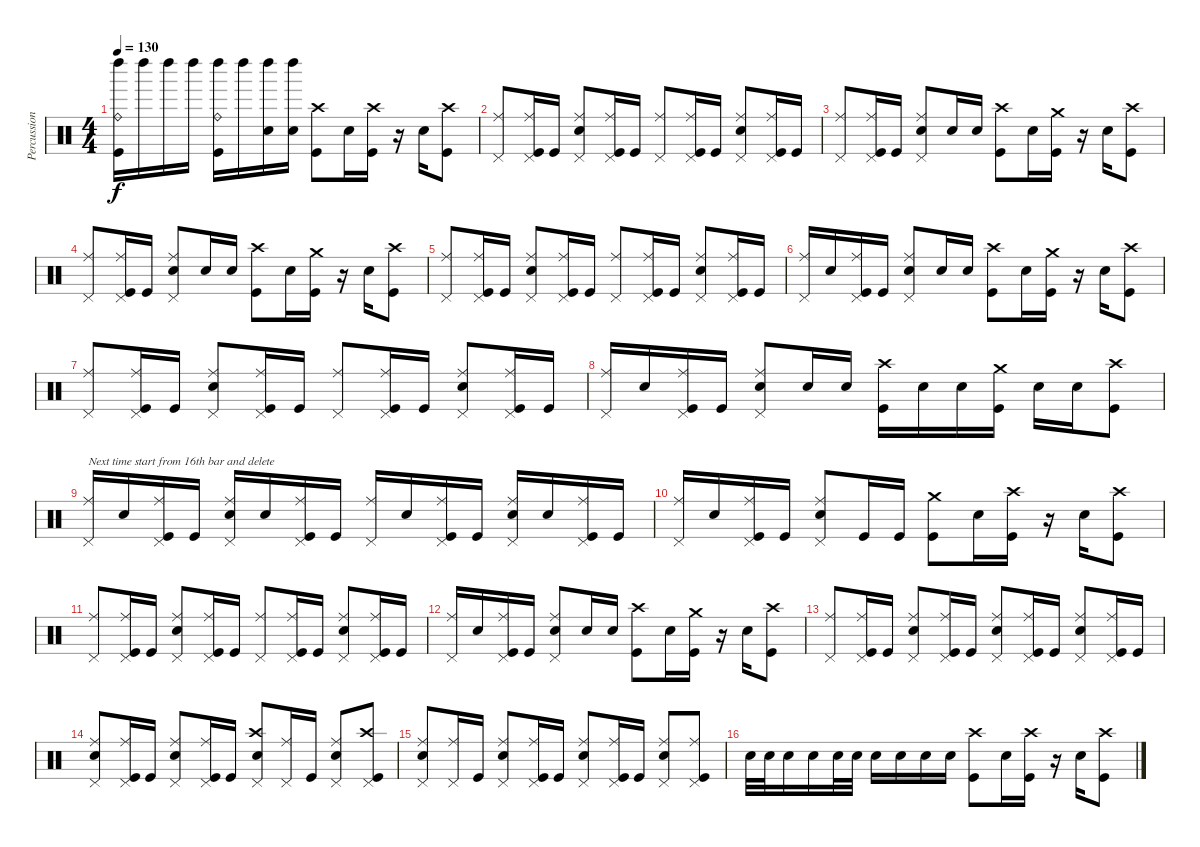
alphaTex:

\track ("Percussion" "Percussion") {instrument percussion}
\staff {score}
\articulation defaults
\ts (4 4)
\tempo 130
\clef neutral
\ks c
("Left Maraca (hit)" "Ride (bell)" "Kick (hit)").16{dy f} "Left Maraca (hit)".16 "Left Maraca (hit)".16 "Left Maraca (hit)".16 ("Left Maraca (hit)" "Ride (bell)" "Kick (hit)").16 "Left Maraca (hit)".16 ("Left Maraca (hit)" "Snare (hit) 2").16 ("Left Maraca (hit)" "Snare (hit) 2").16 ("Crash high (hit)" "Kick (hit)").8 "Electric Snare (hit)".16 ("Crash high (hit)" "Kick (hit)").16 r.16 "Electric Snare (hit)".16 ("Kick (hit)" "Crash high (hit)").8 |
("Ride (middle)" "Pedal Hi-Hat (hit)").8 ("Ride (middle)" "Pedal Hi-Hat (hit)" "Kick (hit)").16 "Kick (hit)".16 ("Ride (middle)" "Pedal Hi-Hat (hit)" "Snare (hit) 2").8 ("Ride (middle)" "Pedal Hi-Hat (hit)" "Kick (hit)").16 "Kick (hit)".16 ("Ride (middle)" "Pedal Hi-Hat (hit)").8 ("Ride (middle)" "Pedal Hi-Hat (hit)" "Kick (hit)").16 "Kick (hit)".16 ("Ride (middle)" "Pedal Hi-Hat (hit)" "Snare (hit) 2").8 ("Ride (middle)" "Pedal Hi-Hat (hit)" "Kick (hit)").16 "Kick (hit)".16 |
("Ride (middle)" "Pedal Hi-Hat (hit)").8 ("Pedal Hi-Hat (hit)" "Ride (middle)" "Kick (hit)").16 "Kick (hit)".16 ("Ride (middle)" "Pedal Hi-Hat (hit)" "Snare (hit) 2").8 "Snare (hit) 2".16 "Snare (hit) 2".16 ("Crash high (hit)" "Kick (hit)").8 "Electric Snare (hit)".16 ("Kick (hit)" "Crash medium (hit)").16 r.16 "Electric Snare (hit)".16 ("Kick (hit)" "Crash high (hit)").8 |
("Ride (middle)" "Pedal Hi-Hat (hit)").8 ("Pedal Hi-Hat (hit)" "Ride (middle)" "Kick (hit)").16 "Kick (hit)".16 ("Ride (middle)" "Pedal Hi-Hat (hit)" "Snare (hit) 2").8 "Snare (hit) 2".16 "Snare (hit) 2".16 ("Crash high (hit)" "Kick (hit)").8 "Electric Snare (hit)".16 ("Kick (hit)" "Crash medium (hit)").16 r.16 "Electric Snare (hit)".16 ("Kick (hit)" "Crash high (hit)").8 |
("Ride (middle)" "Pedal Hi-Hat (hit)").8 ("Ride (middle)" "Pedal Hi-Hat (hit)" "Kick (hit)").16 "Kick (hit)".16 ("Ride (middle)" "Pedal Hi-Hat (hit)" "Snare (hit) 2").8 ("Ride (middle)" "Pedal Hi-Hat (hit)" "Kick (hit)").16 "Kick (hit)".16 ("Ride (middle)" "Pedal Hi-Hat (hit)").8 ("Ride (middle)" "Pedal Hi-Hat (hit)" "Kick (hit)").16 "Kick (hit)".16 ("Ride (middle)" "Pedal Hi-Hat (hit)" "Snare (hit) 2").8 ("Ride (middle)" "Pedal Hi-Hat (hit)" "Kick (hit)").16 "Kick (hit)".16 |
("Ride (middle)" "Pedal Hi-Hat (hit)").16 "Snare (hit) 2".16 ("Pedal Hi-Hat (hit)" "Ride (middle)" "Kick (hit)").16 "Kick (hit)".16 ("Ride (middle)" "Pedal Hi-Hat (hit)" "Snare (hit) 2").8 "Snare (hit) 2".16 "Snare (hit) 2".16 ("Crash high (hit)" "Kick (hit)").8 "Electric Snare (hit)".16 ("Kick (hit)" "Crash medium (hit)").16 r.16 "Electric Snare (hit)".16 ("Kick (hit)" "Crash high (hit)").8 |
("Ride (middle)" "Pedal Hi-Hat (hit)").8 ("Ride (middle)" "Pedal Hi-Hat (hit)" "Kick (hit)").16 "Kick (hit)".16 ("Ride (middle)" "Pedal Hi-Hat (hit)" "Snare (hit) 2").8 ("Ride (middle)" "Pedal Hi-Hat (hit)" "Kick (hit)").16 "Kick (hit)".16 ("Ride (middle)" "Pedal Hi-Hat (hit)").8 ("Ride (middle)" "Pedal Hi-Hat (hit)" "Kick (hit)").16 "Kick (hit)".16 ("Ride (middle)" "Pedal Hi-Hat (hit)" "Snare (hit) 2").8 ("Ride (middle)" "Pedal Hi-Hat (hit)" "Kick (hit)").16 "Kick (hit)".16 |
("Ride (middle)" "Pedal Hi-Hat (hit)").16 "Snare (hit) 2".16 ("Pedal Hi-Hat (hit)" "Ride (middle)" "Kick (hit)").16 "Kick (hit)".16 ("Ride (middle)" "Pedal Hi-Hat (hit)" "Snare (hit) 2").8 "Snare (hit) 2".16 "Snare (hit) 2".16 ("Crash high (hit)" "Kick (hit)").16 "Snare (hit) 2".16 "Snare (hit) 2".16 ("Kick (hit)" "Crash medium (hit)").16 "Snare (hit) 2".16 "Snare (hit) 2".16 ("Kick (hit)" "Crash high (hit)").8 |
("Ride (middle)" "Pedal Hi-Hat (hit)").16{txt "Next time start from 16th bar and delete"} "Snare (hit) 2".16 ("Ride (middle)" "Pedal Hi-Hat (hit)" "Kick (hit)").16 "Kick (hit)".16 ("Ride (middle)" "Pedal Hi-Hat (hit)" "Snare (hit) 2").16 "Snare (hit) 2".16 ("Ride (middle)" "Pedal Hi-Hat (hit)" "Kick (hit)").16 "Kick (hit)".16 ("Ride (middle)" "Pedal Hi-Hat (hit)").16 "Snare (hit) 2".16 ("Ride (middle)" "Pedal Hi-Hat (hit)" "Kick (hit)").16 "Kick (hit)".16 ("Ride (middle)" "Pedal Hi-Hat (hit)" "Snare (hit) 2").16 "Snare (hit) 2".16 ("Ride (middle)" "Pedal Hi-Hat (hit)" "Kick (hit)").16 "Kick (hit)".16 |
("Ride (middle)" "Pedal Hi-Hat (hit)").16 "Snare (hit) 2".16 ("Ride (middle)" "Pedal Hi-Hat (hit)" "Kick (hit)").16 "Kick (hit)".16 ("Ride (middle)" "Pedal Hi-Hat (hit)" "Snare (hit) 2").8 "Kick (hit)".16 "Kick (hit)".16 ("Kick (hit)" "Crash medium (hit)").8 "Electric Snare (hit)".16 ("Kick (hit)" "Crash high (hit)").16 r.16 "Electric Snare (hit)".16 ("Kick (hit)" "Crash high (hit)").8 |
("Ride (middle)" "Pedal Hi-Hat (hit)").8 ("Ride (middle)" "Pedal Hi-Hat (hit)" "Kick (hit)").16 "Kick (hit)".16 ("Ride (middle)" "Pedal Hi-Hat (hit)" "Snare (hit) 2").8 ("Ride (middle)" "Pedal Hi-Hat (hit)" "Kick (hit)").16 "Kick (hit)".16 ("Ride (middle)" "Pedal Hi-Hat (hit)").8 ("Ride (middle)" "Pedal Hi-Hat (hit)" "Kick (hit)").16 "Kick (hit)".16 ("Ride (middle)" "Pedal Hi-Hat (hit)" "Snare (hit) 2").8 ("Ride (middle)" "Pedal Hi-Hat (hit)" "Kick (hit)").16 "Kick (hit)".16 |
("Ride (middle)" "Pedal Hi-Hat (hit)").16 "Snare (hit) 2".16 ("Pedal Hi-Hat (hit)" "Ride (middle)" "Kick (hit)").16 "Kick (hit)".16 ("Ride (middle)" "Pedal Hi-Hat (hit)" "Snare (hit) 2").8 "Snare (hit) 2".16 "Snare (hit) 2".16 ("Crash high (hit)" "Kick (hit)").8 "Electric Snare (hit)".16 ("Kick (hit)" "Crash medium (hit)").16 r.16 "Electric Snare (hit)".16 ("Kick (hit)" "Crash high (hit)").8 |
("Ride (middle)" "Pedal Hi-Hat (hit)").8 ("Ride (middle)" "Pedal Hi-Hat (hit)" "Kick (hit)").16 "Kick (hit)".16 ("Ride (middle)" "Pedal Hi-Hat (hit)" "Snare (hit) 2").8 ("Ride (middle)" "Pedal Hi-Hat (hit)" "Kick (hit)").16 "Kick (hit)".16 ("Ride (middle)" "Pedal Hi-Hat (hit)" "Snare (hit) 2").8 ("Ride (middle)" "Pedal Hi-Hat (hit)" "Kick (hit)").16 "Kick (hit)".16 ("Ride (middle)" "Pedal Hi-Hat (hit)" "Snare (hit) 2").8 ("Ride (middle)" "Pedal Hi-Hat (hit)" "Kick (hit)").16 "Kick (hit)".16 |
("Ride (middle)" "Pedal Hi-Hat (hit)" "Snare (hit) 2").8 ("Ride (middle)" "Pedal Hi-Hat (hit)" "Kick (hit)").16 "Kick (hit)".16 ("Ride (middle)" "Pedal Hi-Hat (hit)" "Snare (hit) 2").8 ("Ride (middle)" "Pedal Hi-Hat (hit)" "Kick (hit)").16 "Kick (hit)".16 ("Crash high (hit)" "Pedal Hi-Hat (hit)" "Snare (hit) 2").8 ("Ride (middle)" "Pedal Hi-Hat (hit)").16 "Kick (hit)".16 ("Ride (middle)" "Pedal Hi-Hat (hit)" "Snare (hit) 2").8 ("Crash high (hit)" "Pedal Hi-Hat (hit)" "Kick (hit)").8 |
("Ride (middle)" "Pedal Hi-Hat (hit)" "Snare (hit) 2").8 ("Ride (middle)" "Pedal Hi-Hat (hit)").16 "Kick (hit)".16 ("Ride (middle)" "Pedal Hi-Hat (hit)" "Snare (hit) 2").8 ("Ride (middle)" "Pedal Hi-Hat (hit)" "Kick (hit)").16 "Kick (hit)".16 ("Ride (middle)" "Pedal Hi-Hat (hit)" "Snare (hit) 2").8 ("Ride (middle)" "Pedal Hi-Hat (hit)" "Kick (hit)").16 "Kick (hit)".16 ("Ride (middle)" "Pedal Hi-Hat (hit)" "Snare (hit) 2").8 ("Ride (middle)" "Pedal Hi-Hat (hit)" "Kick (hit)").8 |
"Snare (hit) 2".32 "Snare (hit) 2".32 "Snare (hit) 2".16 "Snare (hit) 2".16 "Snare (hit) 2".32 "Snare (hit) 2".32 "Snare (hit) 2".16 "Snare (hit) 2".16 "Snare (hit) 2".16 "Snare (hit) 2".16 ("Kick (hit)" "Crash high (hit)").8 "Electric Snare (hit)".16 ("Kick (hit)" "Crash high (hit)").16 r.16 "Electric Snare (hit)".16 ("Kick (hit)" "Crash high (hit)").8
